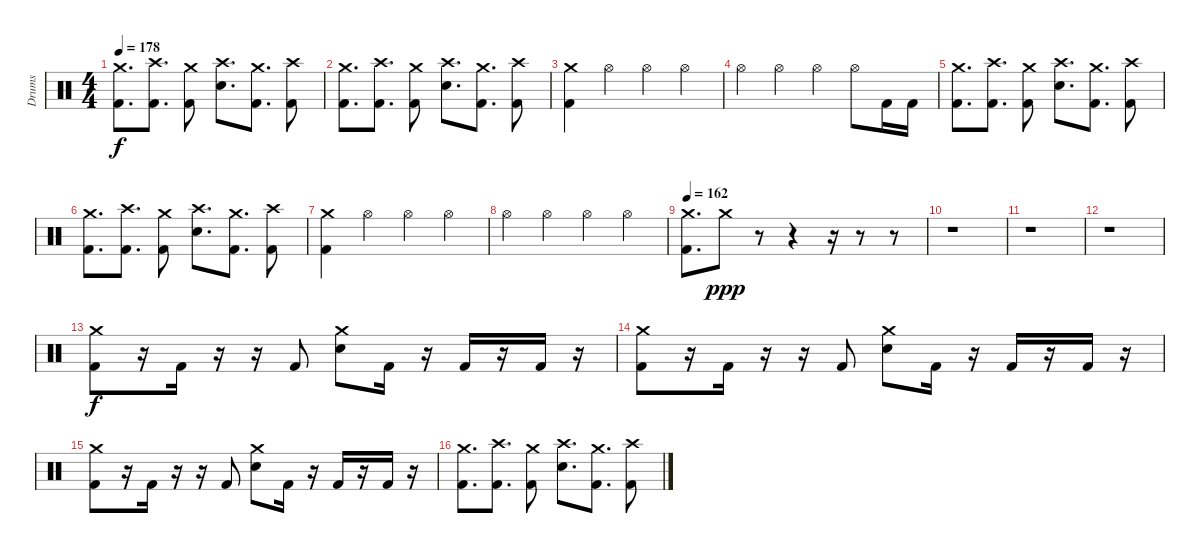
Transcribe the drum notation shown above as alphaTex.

\track ("Drums" "Drums") {instrument percussion}
\staff
\articulation defaults
\ts (4 4)
\tempo 178
\clef neutral
\ks c
("Crash medium (hit)" "Kick (hit) 2").8{d dy f} ("Crash high (hit)" "Kick (hit) 2").8{d} ("Crash medium (hit)" "Kick (hit) 2").8 ("Crash high (hit)" "Electric Snare (hit)").8{d} ("Crash medium (hit)" "Kick (hit) 2").8{d} ("Crash high (hit)" "Kick (hit) 2").8 |
("Crash medium (hit)" "Kick (hit) 2").8{d} ("Crash high (hit)" "Kick (hit) 2").8{d} ("Crash medium (hit)" "Kick (hit) 2").8 ("Crash high (hit)" "Electric Snare (hit)").8{d} ("Crash medium (hit)" "Kick (hit) 2").8{d} ("Crash high (hit)" "Kick (hit) 2").8 |
("Crash medium (hit)" "Kick (hit) 2").4 "Hi-Hat (open)".4 "Hi-Hat (open)".4 "Hi-Hat (open)".4 |
"Hi-Hat (open)".4 "Hi-Hat (open)".4 "Hi-Hat (open)".4 "Hi-Hat (open)".8 "Kick (hit) 2".16 "Kick (hit) 2".16 |
("Crash medium (hit)" "Kick (hit) 2").8{d} ("Crash high (hit)" "Kick (hit) 2").8{d} ("Crash medium (hit)" "Kick (hit) 2").8 ("Crash high (hit)" "Electric Snare (hit)").8{d} ("Crash medium (hit)" "Kick (hit) 2").8{d} ("Crash high (hit)" "Kick (hit) 2").8 |
("Crash medium (hit)" "Kick (hit) 2").8{d} ("Crash high (hit)" "Kick (hit) 2").8{d} ("Crash medium (hit)" "Kick (hit) 2").8 ("Crash high (hit)" "Electric Snare (hit)").8{d} ("Crash medium (hit)" "Kick (hit) 2").8{d} ("Crash high (hit)" "Kick (hit) 2").8 |
("Crash medium (hit)" "Kick (hit) 2").4 "Hi-Hat (open)".4 "Hi-Hat (open)".4 "Hi-Hat (open)".4 |
"Hi-Hat (open)".4 "Hi-Hat (open)".4 "Hi-Hat (open)".4 "Hi-Hat (open)".4 |
\tempo 162
("Crash medium (hit)" "Kick (hit) 2").8{d} "Crash medium (hit)".8{dy ppp} r.8 r.4 r.16 r.8 r.8 |
r.1 |
r.1 |
r.1 |
("Crash medium (hit)" "Kick (hit) 2").8{dy f} r.16 "Kick (hit) 2".16 r.16 r.16 "Kick (hit) 2".8 ("Crash medium (hit)" "Electric Snare (hit)").8 "Kick (hit) 2".16 r.16 "Kick (hit) 2".16 r.16 "Kick (hit) 2".16 r.16 |
("Crash medium (hit)" "Kick (hit) 2").8 r.16 "Kick (hit) 2".16 r.16 r.16 "Kick (hit) 2".8 ("Crash medium (hit)" "Electric Snare (hit)").8 "Kick (hit) 2".16 r.16 "Kick (hit) 2".16 r.16 "Kick (hit) 2".16 r.16 |
("Crash medium (hit)" "Kick (hit) 2").8 r.16 "Kick (hit) 2".16 r.16 r.16 "Kick (hit) 2".8 ("Crash medium (hit)" "Electric Snare (hit)").8 "Kick (hit) 2".16 r.16 "Kick (hit) 2".16 r.16 "Kick (hit) 2".16 r.16 |
("Crash medium (hit)" "Kick (hit) 2").8{d} ("Crash high (hit)" "Kick (hit) 2").8{d} ("Crash medium (hit)" "Kick (hit) 2").8 ("Crash high (hit)" "Electric Snare (hit)").8{d} ("Crash medium (hit)" "Kick (hit) 2").8{d} ("Crash high (hit)" "Kick (hit) 2").8
